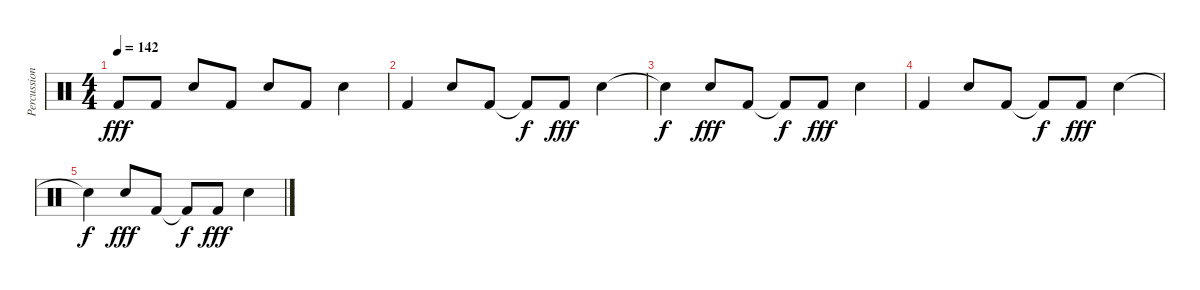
\track ("Percussion" "Percussion") {instrument percussion}
\staff {score}
\articulation defaults
\ts (4 4)
\tempo 142
\clef neutral
\ks c "Kick (hit) 2".8{dy fff} "Kick (hit) 2".8 "Snare (hit) 2".8 "Kick (hit) 2".8 "Snare (hit) 2".8 "Kick (hit) 2".8 "Snare (hit) 2".4
|
"Kick (hit) 2".4 "Snare (hit) 2".8 "Kick (hit) 2".8 "Kick (hit) 2"{t}.8{dy f} "Kick (hit) 2".8{dy fff} "Snare (hit) 2".4 |
"Snare (hit) 2"{t}.4{dy f} "Snare (hit) 2".8{dy fff} "Kick (hit) 2".8 "Kick (hit) 2"{t}.8{dy f} "Kick (hit) 2".8{dy fff} "Snare (hit) 2".4 |
"Kick (hit) 2".4 "Snare (hit) 2".8 "Kick (hit) 2".8 "Kick (hit) 2"{t}.8{dy f} "Kick (hit) 2".8{dy fff} "Snare (hit) 2".4 |
"Snare (hit) 2"{t}.4{dy f} "Snare (hit) 2".8{dy fff} "Kick (hit) 2".8 "Kick (hit) 2"{t}.8{dy f} "Kick (hit) 2".8{dy fff} "Snare (hit) 2".4
